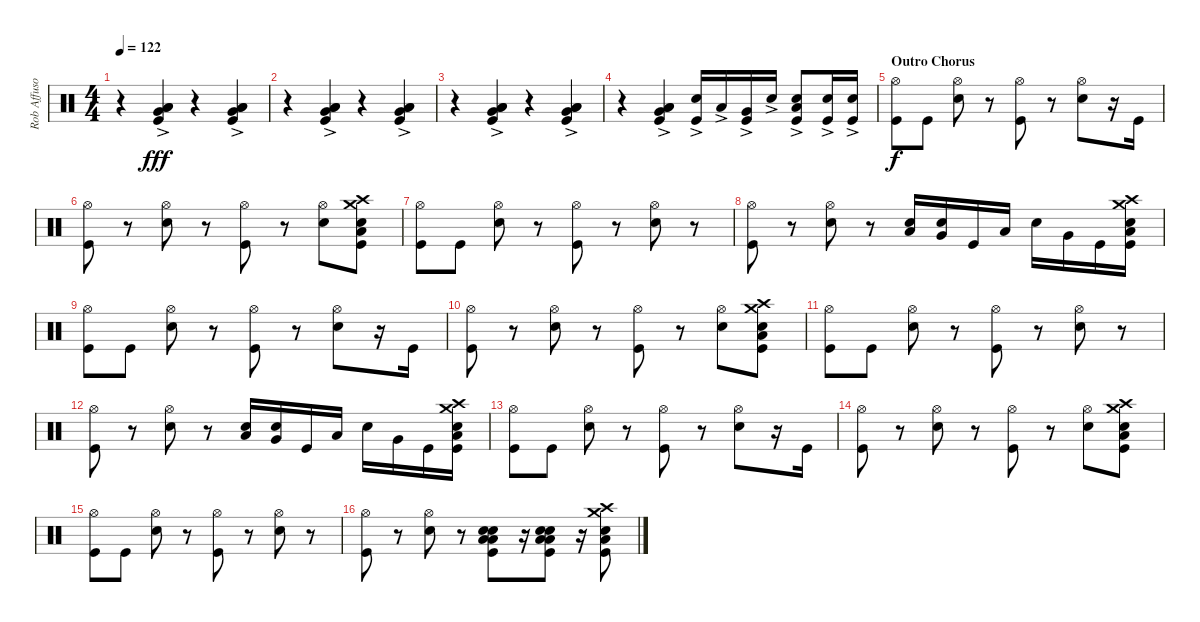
\track ("Rob Affuso - Drums" "Rob Affuso") {instrument percussion}
\staff {score}
\articulation defaults
\ts (4 4)
\tempo 122
\clef neutral
\ks c
r.4{dy fff} ("Very Low Tom (hit)"{ac} "Low Tom (hit)"{ac} "Low Floor Tom (hit)"{ac} "Kick (hit)"{ac}).4 r.4 ("Very Low Tom (hit)"{ac} "Low Tom (hit)"{ac} "Low Floor Tom (hit)"{ac} "Kick (hit)"{ac}).4 |
r.4 ("Very Low Tom (hit)"{ac} "Low Tom (hit)"{ac} "Low Floor Tom (hit)"{ac} "Kick (hit)"{ac}).4 r.4 ("Very Low Tom (hit)"{ac} "Low Tom (hit)"{ac} "Low Floor Tom (hit)"{ac} "Kick (hit)"{ac}).4 |
r.4 ("Very Low Tom (hit)"{ac} "Low Tom (hit)"{ac} "Low Floor Tom (hit)"{ac} "Kick (hit)"{ac}).4 r.4 ("Very Low Tom (hit)"{ac} "Low Tom (hit)"{ac} "Low Floor Tom (hit)"{ac} "Kick (hit)"{ac}).4 |
r.4 ("Very Low Tom (hit)"{ac} "Low Tom (hit)"{ac} "Low Floor Tom (hit)"{ac} "Kick (hit)"{ac}).4 ("Snare (hit) 2"{ac} "Kick (hit)"{ac}).16 "Low Tom (hit)"{ac}.16 ("Very Low Tom (hit)"{ac} "Kick (hit)"{ac}).16 "Snare (hit) 2"{ac}.16 ("Snare (hit) 2"{ac} "Low Floor Tom (hit)"{ac} "Kick (hit)"{ac}).8 ("Snare (hit) 2"{ac} "Kick (hit)"{ac}).16 ("Snare (hit) 2"{ac} "Kick (hit)"{ac}).16 |
\section ("" "Outro Chorus")
("Hi-Hat (open)" "Kick (hit)").8{dy f} "Kick (hit)".8 ("Hi-Hat (open)" "Snare (hit) 2").8 r.8 ("Hi-Hat (open)" "Kick (hit)").8 r.8 ("Hi-Hat (open)" "Snare (hit) 2").8 r.16 "Kick (hit)".16 |
("Hi-Hat (open)" "Kick (hit)").8 r.8 ("Hi-Hat (open)" "Snare (hit) 2").8 r.8 ("Hi-Hat (open)" "Kick (hit)").8 r.8 ("Hi-Hat (open)" "Snare (hit) 2").8 ("Crash medium (hit)" "Crash high (hit)" "Snare (hit) 2" "Low Floor Tom (hit)" "Kick (hit)").8 |
("Hi-Hat (open)" "Kick (hit)").8 "Kick (hit)".8 ("Hi-Hat (open)" "Snare (hit) 2").8 r.8 ("Hi-Hat (open)" "Kick (hit)").8 r.8 ("Hi-Hat (open)" "Snare (hit) 2").8 r.8 |
("Hi-Hat (open)" "Kick (hit)").8 r.8 ("Hi-Hat (open)" "Snare (hit) 2").8 r.8 ("Low Tom (hit)" "Snare (hit) 2").16 ("Very Low Tom (hit)" "Snare (hit) 2").16 "Kick (hit)".16 "Low Tom (hit)".16 "Snare (hit) 2".16 "Very Low Tom (hit)".16 "Kick (hit)".16 ("Crash high (hit)" "Crash medium (hit)" "Snare (hit) 2" "Low Floor Tom (hit)" "Kick (hit)").16 |
("Hi-Hat (open)" "Kick (hit)").8 "Kick (hit)".8 ("Hi-Hat (open)" "Snare (hit) 2").8 r.8 ("Hi-Hat (open)" "Kick (hit)").8 r.8 ("Hi-Hat (open)" "Snare (hit) 2").8 r.16 "Kick (hit)".16 |
("Hi-Hat (open)" "Kick (hit)").8 r.8 ("Hi-Hat (open)" "Snare (hit) 2").8 r.8 ("Hi-Hat (open)" "Kick (hit)").8 r.8 ("Hi-Hat (open)" "Snare (hit) 2").8 ("Crash medium (hit)" "Crash high (hit)" "Snare (hit) 2" "Low Floor Tom (hit)" "Kick (hit)").8 |
("Hi-Hat (open)" "Kick (hit)").8 "Kick (hit)".8 ("Hi-Hat (open)" "Snare (hit) 2").8 r.8 ("Hi-Hat (open)" "Kick (hit)").8 r.8 ("Hi-Hat (open)" "Snare (hit) 2").8 r.8 |
("Hi-Hat (open)" "Kick (hit)").8 r.8 ("Hi-Hat (open)" "Snare (hit) 2").8 r.8 ("Low Tom (hit)" "Snare (hit) 2").16 ("Very Low Tom (hit)" "Snare (hit) 2").16 "Kick (hit)".16 "Low Tom (hit)".16 "Snare (hit) 2".16 "Very Low Tom (hit)".16 "Kick (hit)".16 ("Crash medium (hit)" "Crash high (hit)" "Snare (hit) 2" "Low Floor Tom (hit)" "Kick (hit)").16 |
("Hi-Hat (open)" "Kick (hit)").8 "Kick (hit)".8 ("Hi-Hat (open)" "Snare (hit) 2").8 r.8 ("Hi-Hat (open)" "Kick (hit)").8 r.8 ("Hi-Hat (open)" "Snare (hit) 2").8 r.16 "Kick (hit)".16 |
("Hi-Hat (open)" "Kick (hit)").8 r.8 ("Hi-Hat (open)" "Snare (hit) 2").8 r.8 ("Hi-Hat (open)" "Kick (hit)").8 r.8 ("Hi-Hat (open)" "Snare (hit) 2").8 ("Crash medium (hit)" "Crash high (hit)" "Snare (hit) 2" "Low Floor Tom (hit)" "Kick (hit)").8 |
("Hi-Hat (open)" "Kick (hit)").8 "Kick (hit)".8 ("Hi-Hat (open)" "Snare (hit) 2").8 r.8 ("Hi-Hat (open)" "Kick (hit)").8 r.8 ("Hi-Hat (open)" "Snare (hit) 2").8 r.8 |
("Hi-Hat (open)" "Kick (hit)").8 r.8 ("Hi-Hat (open)" "Snare (hit) 2").8 r.8 ("Snare (hit) 2" "Low Tom (hit)" "Snare (hit) 2" "Low Floor Tom (hit)" "Kick (hit)").8 r.16 ("Snare (hit) 2" "Low Tom (hit)" "Snare (hit) 2" "Low Floor Tom (hit)" "Kick (hit)").8 r.16 ("Crash high (hit)" "Crash medium (hit)" "Snare (hit) 2" "Low Floor Tom (hit)" "Kick (hit)").8
